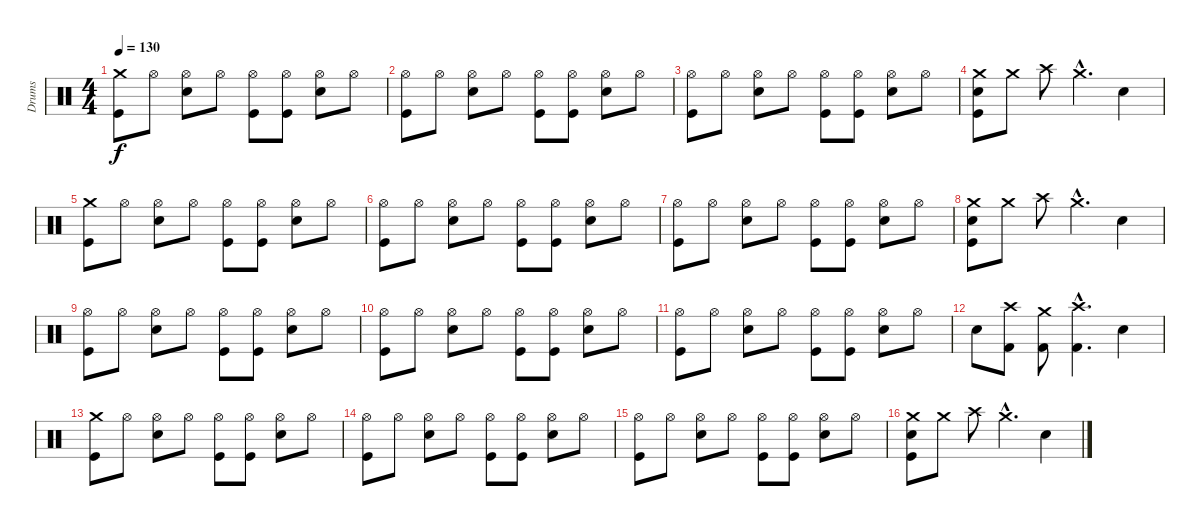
\track ("Drums" "Drums") {instrument percussion}
\staff {score}
\articulation defaults
\ts (4 4)
\tempo 130
\clef neutral
\ks c
("Kick (hit)" "Crash medium (hit)").8{dy f} "Hi-Hat (open)".8 ("Electric Snare (hit)" "Hi-Hat (open)").8 "Hi-Hat (open)".8 ("Kick (hit)" "Hi-Hat (open)").8 ("Kick (hit)" "Hi-Hat (open)").8 ("Electric Snare (hit)" "Hi-Hat (open)").8 "Hi-Hat (open)".8 |
("Kick (hit)" "Hi-Hat (open)").8 "Hi-Hat (open)".8 ("Electric Snare (hit)" "Hi-Hat (open)").8 "Hi-Hat (open)".8 ("Kick (hit)" "Hi-Hat (open)").8 ("Kick (hit)" "Hi-Hat (open)").8 ("Electric Snare (hit)" "Hi-Hat (open)").8 "Hi-Hat (open)".8 |
("Kick (hit)" "Hi-Hat (open)").8 "Hi-Hat (open)".8 ("Electric Snare (hit)" "Hi-Hat (open)").8 "Hi-Hat (open)".8 ("Kick (hit)" "Hi-Hat (open)").8 ("Kick (hit)" "Hi-Hat (open)").8 ("Electric Snare (hit)" "Hi-Hat (open)").8 "Hi-Hat (open)".8 |
("Crash medium (hit)" "Kick (hit)" "Electric Snare (hit)").8 "Crash medium (hit)".8 "Crash high (hit)".8 "Crash medium (hit)"{hac}.4{d} "Electric Snare (hit)".4 |
("Kick (hit)" "Crash medium (hit)").8 "Hi-Hat (open)".8 ("Electric Snare (hit)" "Hi-Hat (open)").8 "Hi-Hat (open)".8 ("Kick (hit)" "Hi-Hat (open)").8 ("Kick (hit)" "Hi-Hat (open)").8 ("Electric Snare (hit)" "Hi-Hat (open)").8 "Hi-Hat (open)".8 |
("Kick (hit)" "Hi-Hat (open)").8 "Hi-Hat (open)".8 ("Electric Snare (hit)" "Hi-Hat (open)").8 "Hi-Hat (open)".8 ("Kick (hit)" "Hi-Hat (open)").8 ("Kick (hit)" "Hi-Hat (open)").8 ("Electric Snare (hit)" "Hi-Hat (open)").8 "Hi-Hat (open)".8 |
("Kick (hit)" "Hi-Hat (open)").8 "Hi-Hat (open)".8 ("Electric Snare (hit)" "Hi-Hat (open)").8 "Hi-Hat (open)".8 ("Kick (hit)" "Hi-Hat (open)").8 ("Kick (hit)" "Hi-Hat (open)").8 ("Electric Snare (hit)" "Hi-Hat (open)").8 "Hi-Hat (open)".8 |
("Crash medium (hit)" "Kick (hit)" "Electric Snare (hit)").8 "Crash medium (hit)".8 "Crash high (hit)".8 "Crash medium (hit)"{hac}.4{d} "Electric Snare (hit)".4 |
("Kick (hit)" "Hi-Hat (open)").8 "Hi-Hat (open)".8 ("Electric Snare (hit)" "Hi-Hat (open)").8 "Hi-Hat (open)".8 ("Kick (hit)" "Hi-Hat (open)").8 ("Kick (hit)" "Hi-Hat (open)").8 ("Electric Snare (hit)" "Hi-Hat (open)").8 "Hi-Hat (open)".8 |
("Kick (hit)" "Hi-Hat (open)").8 "Hi-Hat (open)".8 ("Electric Snare (hit)" "Hi-Hat (open)").8 "Hi-Hat (open)".8 ("Kick (hit)" "Hi-Hat (open)").8 ("Kick (hit)" "Hi-Hat (open)").8 ("Electric Snare (hit)" "Hi-Hat (open)").8 "Hi-Hat (open)".8 |
("Kick (hit)" "Hi-Hat (open)").8 "Hi-Hat (open)".8 ("Electric Snare (hit)" "Hi-Hat (open)").8 "Hi-Hat (open)".8 ("Kick (hit)" "Hi-Hat (open)").8 ("Kick (hit)" "Hi-Hat (open)").8 ("Electric Snare (hit)" "Hi-Hat (open)").8 "Hi-Hat (open)".8 |
"Electric Snare (hit)".8 ("Kick (hit) 2" "Crash high (hit)").8 ("Kick (hit) 2" "Crash medium (hit)").8 ("Kick (hit) 2"{hac} "Crash high (hit)"{hac}).4{d} "Electric Snare (hit)".4 |
("Kick (hit)" "Crash medium (hit)").8 "Hi-Hat (open)".8 ("Electric Snare (hit)" "Hi-Hat (open)").8 "Hi-Hat (open)".8 ("Kick (hit)" "Hi-Hat (open)").8 ("Kick (hit)" "Hi-Hat (open)").8 ("Electric Snare (hit)" "Hi-Hat (open)").8 "Hi-Hat (open)".8 |
("Kick (hit)" "Hi-Hat (open)").8 "Hi-Hat (open)".8 ("Electric Snare (hit)" "Hi-Hat (open)").8 "Hi-Hat (open)".8 ("Kick (hit)" "Hi-Hat (open)").8 ("Kick (hit)" "Hi-Hat (open)").8 ("Electric Snare (hit)" "Hi-Hat (open)").8 "Hi-Hat (open)".8 |
("Kick (hit)" "Hi-Hat (open)").8 "Hi-Hat (open)".8 ("Electric Snare (hit)" "Hi-Hat (open)").8 "Hi-Hat (open)".8 ("Kick (hit)" "Hi-Hat (open)").8 ("Kick (hit)" "Hi-Hat (open)").8 ("Electric Snare (hit)" "Hi-Hat (open)").8 "Hi-Hat (open)".8 |
("Crash medium (hit)" "Kick (hit)" "Electric Snare (hit)").8 "Crash medium (hit)".8 "Crash high (hit)".8 "Crash medium (hit)"{hac}.4{d} "Electric Snare (hit)".4
